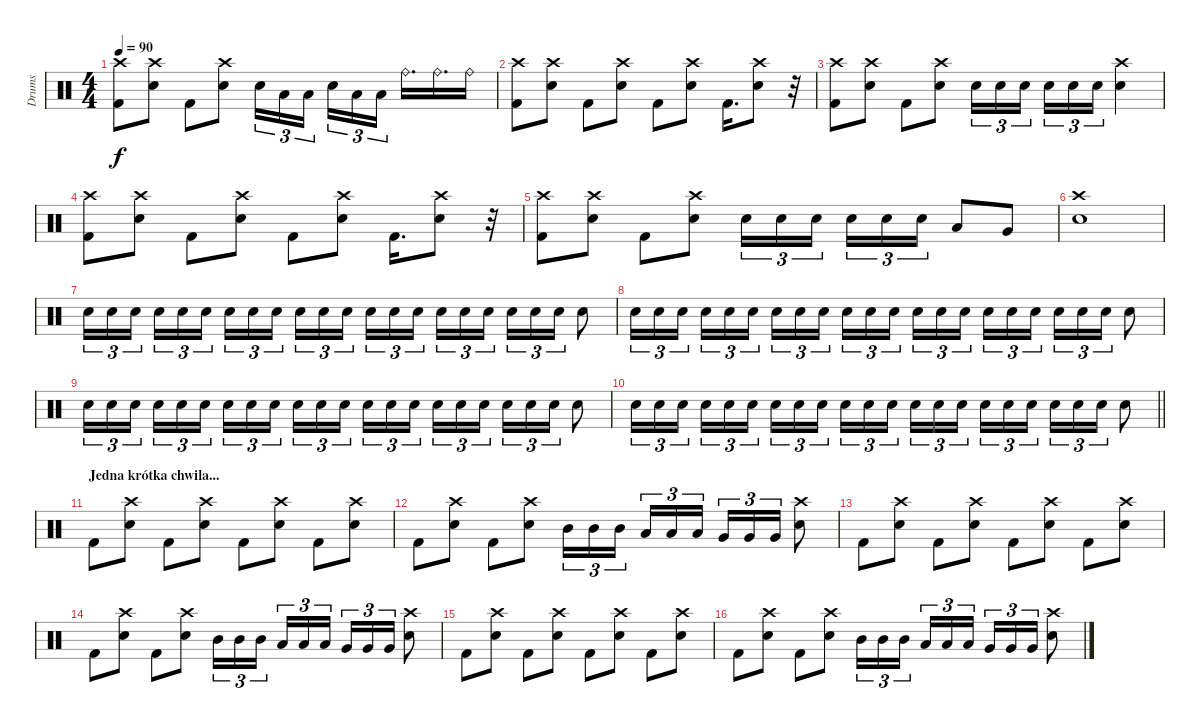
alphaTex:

\track ("Drums" "Drums") {instrument percussion}
\staff {score}
\articulation defaults
\ts (4 4)
\tempo 90
\clef neutral
\ks c
("Crash high (hit)" "Kick (hit) 2").8{dy f} ("Crash high (hit)" "Snare (hit) 2").8 "Kick (hit) 2".8 ("Crash high (hit)" "Snare (hit) 2").8 "Snare (hit) 2".16{tu (3 2)} "Low Tom (hit)".16{tu (3 2)} "Low Tom (hit)".16{tu (3 2) beam splitsecondary} "Snare (hit) 2".16{tu (3 2)} "Low Tom (hit)".16{tu (3 2)} "Low Tom (hit)".16{tu (3 2)} "Ride (bell)".16{d} "Ride (bell)".16{d} "Ride (bell)".16 |
("Crash high (hit)" "Kick (hit) 2").8 ("Crash high (hit)" "Snare (hit) 2").8 "Kick (hit) 2".8 ("Crash high (hit)" "Snare (hit) 2").8 "Kick (hit) 2".8 ("Crash high (hit)" "Snare (hit) 2").8 "Kick (hit) 2".16{d} ("Crash high (hit)" "Snare (hit) 2").8 r.32 |
("Crash high (hit)" "Kick (hit) 2").8 ("Crash high (hit)" "Snare (hit) 2").8 "Kick (hit) 2".8 ("Crash high (hit)" "Snare (hit) 2").8 "Snare (hit) 2".16{tu (3 2)} "Snare (hit) 2".16{tu (3 2)} "Snare (hit) 2".16{tu (3 2) beam splitsecondary} "Snare (hit) 2".16{tu (3 2)} "Snare (hit) 2".16{tu (3 2)} "Snare (hit) 2".16{tu (3 2)} ("Crash high (hit)" "Snare (hit) 2").4 |
("Crash high (hit)" "Kick (hit) 2").8 ("Crash high (hit)" "Snare (hit) 2").8 "Kick (hit) 2".8 ("Crash high (hit)" "Snare (hit) 2").8 "Kick (hit) 2".8 ("Crash high (hit)" "Snare (hit) 2").8 "Kick (hit) 2".16{d} ("Crash high (hit)" "Snare (hit) 2").8 r.32 |
("Crash high (hit)" "Kick (hit) 2").8 ("Crash high (hit)" "Snare (hit) 2").8 "Kick (hit) 2".8 ("Crash high (hit)" "Snare (hit) 2").8 "Snare (hit) 2".16{tu (3 2)} "Snare (hit) 2".16{tu (3 2)} "Snare (hit) 2".16{tu (3 2) beam splitsecondary} "Snare (hit) 2".16{tu (3 2)} "Snare (hit) 2".16{tu (3 2)} "Snare (hit) 2".16{tu (3 2)} "Low Tom (hit)".8 "Very Low Tom (hit)".8 |
("Crash high (hit)" "Snare (hit) 2").1 |
"Snare (hit) 2".16{tu (3 2)} "Snare (hit) 2".16{tu (3 2)} "Snare (hit) 2".16{tu (3 2) beam splitsecondary} "Snare (hit) 2".16{tu (3 2)} "Snare (hit) 2".16{tu (3 2)} "Snare (hit) 2".16{tu (3 2)} "Snare (hit) 2".16{tu (3 2)} "Snare (hit) 2".16{tu (3 2)} "Snare (hit) 2".16{tu (3 2) beam splitsecondary} "Snare (hit) 2".16{tu (3 2)} "Snare (hit) 2".16{tu (3 2)} "Snare (hit) 2".16{tu (3 2)} "Snare (hit) 2".16{tu (3 2)} "Snare (hit) 2".16{tu (3 2)} "Snare (hit) 2".16{tu (3 2) beam splitsecondary} "Snare (hit) 2".16{tu (3 2)} "Snare (hit) 2".16{tu (3 2)} "Snare (hit) 2".16{tu (3 2)} "Snare (hit) 2".16{tu (3 2)} "Snare (hit) 2".16{tu (3 2)} "Snare (hit) 2".16{tu (3 2)} "Snare (hit) 2".8 |
"Snare (hit) 2".16{tu (3 2)} "Snare (hit) 2".16{tu (3 2)} "Snare (hit) 2".16{tu (3 2) beam splitsecondary} "Snare (hit) 2".16{tu (3 2)} "Snare (hit) 2".16{tu (3 2)} "Snare (hit) 2".16{tu (3 2)} "Snare (hit) 2".16{tu (3 2)} "Snare (hit) 2".16{tu (3 2)} "Snare (hit) 2".16{tu (3 2) beam splitsecondary} "Snare (hit) 2".16{tu (3 2)} "Snare (hit) 2".16{tu (3 2)} "Snare (hit) 2".16{tu (3 2)} "Snare (hit) 2".16{tu (3 2)} "Snare (hit) 2".16{tu (3 2)} "Snare (hit) 2".16{tu (3 2) beam splitsecondary} "Snare (hit) 2".16{tu (3 2)} "Snare (hit) 2".16{tu (3 2)} "Snare (hit) 2".16{tu (3 2)} "Snare (hit) 2".16{tu (3 2)} "Snare (hit) 2".16{tu (3 2)} "Snare (hit) 2".16{tu (3 2)} "Snare (hit) 2".8 |
"Snare (hit) 2".16{tu (3 2)} "Snare (hit) 2".16{tu (3 2)} "Snare (hit) 2".16{tu (3 2) beam splitsecondary} "Snare (hit) 2".16{tu (3 2)} "Snare (hit) 2".16{tu (3 2)} "Snare (hit) 2".16{tu (3 2)} "Snare (hit) 2".16{tu (3 2)} "Snare (hit) 2".16{tu (3 2)} "Snare (hit) 2".16{tu (3 2) beam splitsecondary} "Snare (hit) 2".16{tu (3 2)} "Snare (hit) 2".16{tu (3 2)} "Snare (hit) 2".16{tu (3 2)} "Snare (hit) 2".16{tu (3 2)} "Snare (hit) 2".16{tu (3 2)} "Snare (hit) 2".16{tu (3 2) beam splitsecondary} "Snare (hit) 2".16{tu (3 2)} "Snare (hit) 2".16{tu (3 2)} "Snare (hit) 2".16{tu (3 2)} "Snare (hit) 2".16{tu (3 2)} "Snare (hit) 2".16{tu (3 2)} "Snare (hit) 2".16{tu (3 2)} "Snare (hit) 2".8 |
\barLineRight lightlight "Snare (hit) 2".16{tu (3 2)} "Snare (hit) 2".16{tu (3 2)} "Snare (hit) 2".16{tu (3 2) beam splitsecondary} "Snare (hit) 2".16{tu (3 2)} "Snare (hit) 2".16{tu (3 2)} "Snare (hit) 2".16{tu (3 2)} "Snare (hit) 2".16{tu (3 2)} "Snare (hit) 2".16{tu (3 2)} "Snare (hit) 2".16{tu (3 2) beam splitsecondary} "Snare (hit) 2".16{tu (3 2)} "Snare (hit) 2".16{tu (3 2)} "Snare (hit) 2".16{tu (3 2)} "Snare (hit) 2".16{tu (3 2)} "Snare (hit) 2".16{tu (3 2)} "Snare (hit) 2".16{tu (3 2) beam splitsecondary} "Snare (hit) 2".16{tu (3 2)} "Snare (hit) 2".16{tu (3 2)} "Snare (hit) 2".16{tu (3 2)} "Snare (hit) 2".16{tu (3 2)} "Snare (hit) 2".16{tu (3 2)} "Snare (hit) 2".16{tu (3 2)} "Snare (hit) 2".8
|
\section ("" "Jedna krótka chwila...")
"Kick (hit) 2".8 ("Crash high (hit)" "Snare (hit) 2").8 "Kick (hit) 2".8 ("Crash high (hit)" "Snare (hit) 2").8 "Kick (hit) 2".8 ("Crash high (hit)" "Snare (hit) 2").8 "Kick (hit) 2".8 ("Crash high (hit)" "Snare (hit) 2").8 |
"Kick (hit) 2".8 ("Crash high (hit)" "Snare (hit) 2").8 "Kick (hit) 2".8 ("Crash high (hit)" "Snare (hit) 2").8 "Mid Tom (hit)".16{tu (3 2)} "Mid Tom (hit)".16{tu (3 2)} "Mid Tom (hit)".16{tu (3 2) beam splitsecondary} "Low Tom (hit)".16{tu (3 2)} "Low Tom (hit)".16{tu (3 2)} "Low Tom (hit)".16{tu (3 2)} "Very Low Tom (hit)".16{tu (3 2)} "Very Low Tom (hit)".16{tu (3 2)} "Very Low Tom (hit)".16{tu (3 2)} ("Crash high (hit)" "Snare (hit) 2").8 |
"Kick (hit) 2".8 ("Crash high (hit)" "Snare (hit) 2").8 "Kick (hit) 2".8 ("Crash high (hit)" "Snare (hit) 2").8 "Kick (hit) 2".8 ("Crash high (hit)" "Snare (hit) 2").8 "Kick (hit) 2".8 ("Crash high (hit)" "Snare (hit) 2").8 |
"Kick (hit) 2".8 ("Crash high (hit)" "Snare (hit) 2").8 "Kick (hit) 2".8 ("Crash high (hit)" "Snare (hit) 2").8 "Mid Tom (hit)".16{tu (3 2)} "Mid Tom (hit)".16{tu (3 2)} "Mid Tom (hit)".16{tu (3 2) beam splitsecondary} "Low Tom (hit)".16{tu (3 2)} "Low Tom (hit)".16{tu (3 2)} "Low Tom (hit)".16{tu (3 2)} "Very Low Tom (hit)".16{tu (3 2)} "Very Low Tom (hit)".16{tu (3 2)} "Very Low Tom (hit)".16{tu (3 2)} ("Crash high (hit)" "Snare (hit) 2").8 |
"Kick (hit) 2".8 ("Crash high (hit)" "Snare (hit) 2").8 "Kick (hit) 2".8 ("Crash high (hit)" "Snare (hit) 2").8 "Kick (hit) 2".8 ("Crash high (hit)" "Snare (hit) 2").8 "Kick (hit) 2".8 ("Crash high (hit)" "Snare (hit) 2").8 |
"Kick (hit) 2".8 ("Crash high (hit)" "Snare (hit) 2").8 "Kick (hit) 2".8 ("Crash high (hit)" "Snare (hit) 2").8 "Mid Tom (hit)".16{tu (3 2)} "Mid Tom (hit)".16{tu (3 2)} "Mid Tom (hit)".16{tu (3 2) beam splitsecondary} "Low Tom (hit)".16{tu (3 2)} "Low Tom (hit)".16{tu (3 2)} "Low Tom (hit)".16{tu (3 2)} "Very Low Tom (hit)".16{tu (3 2)} "Very Low Tom (hit)".16{tu (3 2)} "Very Low Tom (hit)".16{tu (3 2)} ("Crash high (hit)" "Snare (hit) 2").8
